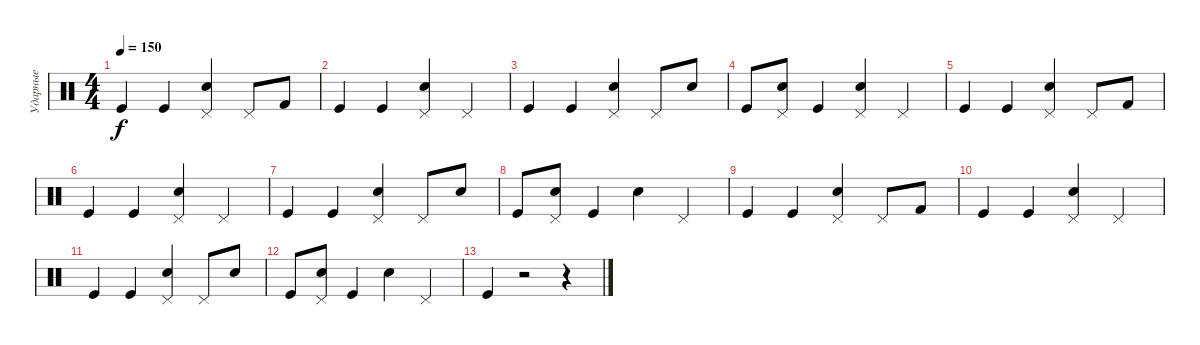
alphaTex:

\track ("Ударные" "Ударные") {instrument percussion}
\staff {score}
\articulation defaults
\ts (4 4)
\tempo 150
\clef neutral
\ks c "Kick (hit)".4{dy f} "Kick (hit)".4
("Electric Snare (hit)" "Pedal Hi-Hat (hit)").4 "Pedal Hi-Hat (hit)".8 "Kick (hit) 2".8 |
"Kick (hit)".4 "Kick (hit)".4 ("Electric Snare (hit)" "Pedal Hi-Hat (hit)").4 "Pedal Hi-Hat (hit)".4 |
"Kick (hit)".4 "Kick (hit)".4 ("Electric Snare (hit)" "Pedal Hi-Hat (hit)").4 "Pedal Hi-Hat (hit)".8 "Electric Snare (hit)".8 |
"Kick (hit)".8 ("Electric Snare (hit)" "Pedal Hi-Hat (hit)").8 "Kick (hit)".4 ("Electric Snare (hit)" "Pedal Hi-Hat (hit)").4 "Pedal Hi-Hat (hit)".4 |
"Kick (hit)".4 "Kick (hit)".4 ("Electric Snare (hit)" "Pedal Hi-Hat (hit)").4 "Pedal Hi-Hat (hit)".8 "Kick (hit) 2".8 |
"Kick (hit)".4 "Kick (hit)".4 ("Electric Snare (hit)" "Pedal Hi-Hat (hit)").4 "Pedal Hi-Hat (hit)".4 |
"Kick (hit)".4 "Kick (hit)".4 ("Electric Snare (hit)" "Pedal Hi-Hat (hit)").4 "Pedal Hi-Hat (hit)".8 "Electric Snare (hit)".8 |
"Kick (hit)".8 ("Electric Snare (hit)" "Pedal Hi-Hat (hit)").8 "Kick (hit)".4 "Electric Snare (hit)".4 "Pedal Hi-Hat (hit)".4 |
"Kick (hit)".4 "Kick (hit)".4 ("Electric Snare (hit)" "Pedal Hi-Hat (hit)").4 "Pedal Hi-Hat (hit)".8 "Kick (hit) 2".8 |
"Kick (hit)".4 "Kick (hit)".4 ("Electric Snare (hit)" "Pedal Hi-Hat (hit)").4 "Pedal Hi-Hat (hit)".4 |
"Kick (hit)".4 "Kick (hit)".4 ("Electric Snare (hit)" "Pedal Hi-Hat (hit)").4 "Pedal Hi-Hat (hit)".8 "Electric Snare (hit)".8 |
"Kick (hit)".8 ("Electric Snare (hit)" "Pedal Hi-Hat (hit)").8 "Kick (hit)".4 "Electric Snare (hit)".4 "Pedal Hi-Hat (hit)".4 |
"Kick (hit)".4 r.2 r.4
